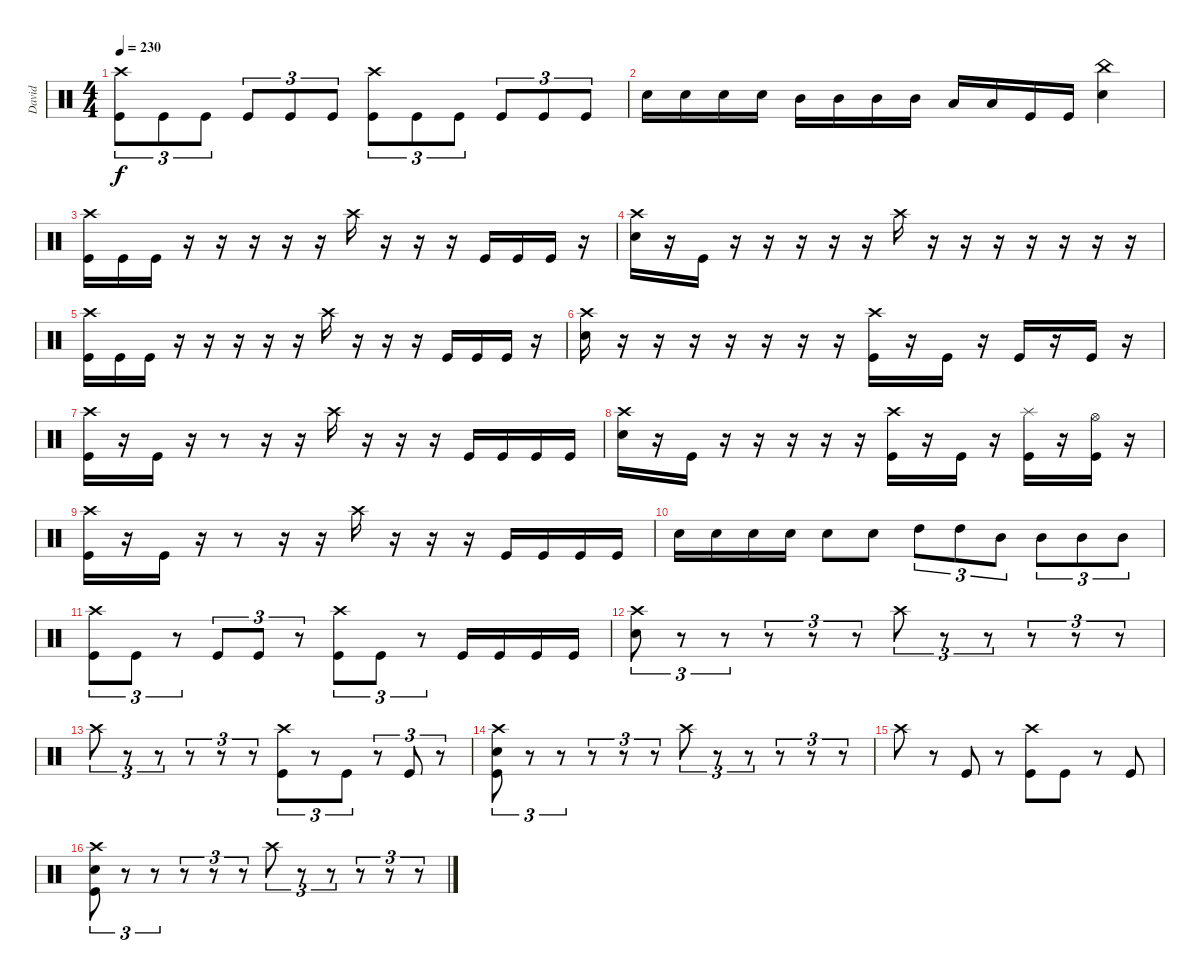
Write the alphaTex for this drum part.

\track ("David" "David") {instrument percussion}
\staff {score}
\articulation defaults
\ts (4 4)
\tempo 230
\clef neutral
\ks c
("Crash high (hit)" "Kick (hit)").8{tu (3 2) dy f} "Kick (hit)".8{tu (3 2)} "Kick (hit)".8{tu (3 2)} "Kick (hit)".8{tu (3 2)} "Kick (hit)".8{tu (3 2)} "Kick (hit)".8{tu (3 2)} ("Crash high (hit)" "Kick (hit)").8{tu (3 2)} "Kick (hit)".8{tu (3 2)} "Kick (hit)".8{tu (3 2)} "Kick (hit)".8{tu (3 2)} "Kick (hit)".8{tu (3 2)} "Kick (hit)".8{tu (3 2)} |
"Electric Snare (hit)".16 "Electric Snare (hit)".16 "Electric Snare (hit)".16 "Electric Snare (hit)".16 "Mid Tom (hit)".16 "Mid Tom (hit)".16 "Mid Tom (hit)".16 "Mid Tom (hit)".16 "Low Tom (hit)".16 "Low Tom (hit)".16 "Kick (hit)".16 "Kick (hit)".16 ("China (hit)" "Electric Snare (hit)").4 |
("Crash high (hit)" "Kick (hit)").16 "Kick (hit)".16 "Kick (hit)".16 r.16 r.16 r.16 r.16 r.16 "Crash high (hit)".16 r.16 r.16 r.16 "Kick (hit)".16 "Kick (hit)".16 "Kick (hit)".16 r.16 |
("Crash high (hit)" "Electric Snare (hit)").16 r.16 "Kick (hit)".16 r.16 r.16 r.16 r.16 r.16 "Crash high (hit)".16 r.16 r.16 r.16 r.16 r.16 r.16 r.16 |
("Crash high (hit)" "Kick (hit)").16 "Kick (hit)".16 "Kick (hit)".16 r.16 r.16 r.16 r.16 r.16 "Crash high (hit)".16 r.16 r.16 r.16 "Kick (hit)".16 "Kick (hit)".16 "Kick (hit)".16 r.16 |
("Crash high (hit)" "Electric Snare (hit)").16 r.16 r.16 r.16 r.16 r.16 r.16 r.16 ("Crash high (hit)" "Kick (hit)").16 r.16 "Kick (hit)".16 r.16 "Kick (hit)".16 r.16 "Kick (hit)".16 r.16 |
("Crash high (hit)" "Kick (hit)").16 r.16 "Kick (hit)".16 r.16 r.8 r.16 r.16 "Crash high (hit)".16 r.16 r.16 r.16 "Kick (hit)".16 "Kick (hit)".16 "Kick (hit)".16 "Kick (hit)".16 |
("Crash high (hit)" "Electric Snare (hit)").16 r.16 "Kick (hit)".16 r.16 r.16 r.16 r.16 r.16 ("Crash high (hit)" "Kick (hit)").16 r.16 "Kick (hit)".16 r.16 ("Splash (hit)" "Kick (hit)").16 r.16 ("Hi-Hat (open)" "Kick (hit)").16 r.16 |
("Crash high (hit)" "Kick (hit)").16 r.16 "Kick (hit)".16 r.16 r.8 r.16 r.16 "Crash high (hit)".16 r.16 r.16 r.16 "Kick (hit)".16 "Kick (hit)".16 "Kick (hit)".16 "Kick (hit)".16 |
"Electric Snare (hit)".16 "Electric Snare (hit)".16 "Electric Snare (hit)".16 "Electric Snare (hit)".16 "Electric Snare (hit)".8 "Electric Snare (hit)".8 "High Tom (hit)".8{tu (3 2)} "High Tom (hit)".8{tu (3 2)} "Mid Tom (hit)".8{tu (3 2)} "Mid Tom (hit)".8{tu (3 2)} "Mid Tom (hit)".8{tu (3 2)} "Mid Tom (hit)".8{tu (3 2)} |
("Crash high (hit)" "Kick (hit)").8{tu (3 2)} "Kick (hit)".8{tu (3 2)} r.8{tu (3 2)} "Kick (hit)".8{tu (3 2)} "Kick (hit)".8{tu (3 2)} r.8{tu (3 2)} ("Crash high (hit)" "Kick (hit)").8{tu (3 2)} "Kick (hit)".8{tu (3 2)} r.8{tu (3 2)} "Kick (hit)".16 "Kick (hit)".16 "Kick (hit)".16 "Kick (hit)".16 |
("Crash high (hit)" "Electric Snare (hit)").8{tu (3 2)} r.8{tu (3 2)} r.8{tu (3 2)} r.8{tu (3 2)} r.8{tu (3 2)} r.8{tu (3 2)} "Crash high (hit)".8{tu (3 2)} r.8{tu (3 2)} r.8{tu (3 2)} r.8{tu (3 2)} r.8{tu (3 2)} r.8{tu (3 2)} |
"Crash high (hit)".8{tu (3 2)} r.8{tu (3 2)} r.8{tu (3 2)} r.8{tu (3 2)} r.8{tu (3 2)} r.8{tu (3 2)} ("Crash high (hit)" "Kick (hit)").8{tu (3 2)} r.8{tu (3 2)} "Kick (hit)".8{tu (3 2)} r.8{tu (3 2)} "Kick (hit)".8{tu (3 2)} r.8{tu (3 2)} |
("Crash high (hit)" "Electric Snare (hit)" "Kick (hit)").8{tu (3 2)} r.8{tu (3 2)} r.8{tu (3 2)} r.8{tu (3 2)} r.8{tu (3 2)} r.8{tu (3 2)} "Crash high (hit)".8{tu (3 2)} r.8{tu (3 2)} r.8{tu (3 2)} r.8{tu (3 2)} r.8{tu (3 2)} r.8{tu (3 2)} |
"Crash high (hit)".8 r.8 "Kick (hit)".8 r.8 ("Crash high (hit)" "Kick (hit)").8 "Kick (hit)".8 r.8 "Kick (hit)".8 |
("Crash high (hit)" "Electric Snare (hit)" "Kick (hit)").8{tu (3 2)} r.8{tu (3 2)} r.8{tu (3 2)} r.8{tu (3 2)} r.8{tu (3 2)} r.8{tu (3 2)} "Crash high (hit)".8{tu (3 2)} r.8{tu (3 2)} r.8{tu (3 2)} r.8{tu (3 2)} r.8{tu (3 2)} r.8{tu (3 2)}
